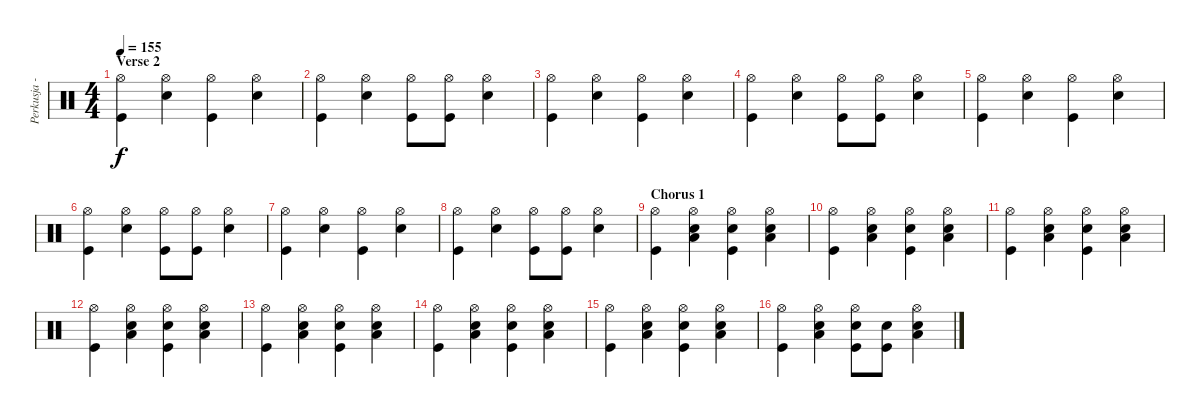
\track ("Perkusja - Mielony" "Perkusja -") {instrument percussion}
\staff {score}
\articulation defaults
\ts (4 4)
\section ("" "Verse 2")
\tempo 155
\clef neutral
\ks c
("Hi-Hat (open)" "Kick (hit)").4{dy f} ("Snare (hit) 2" "Hi-Hat (open)").4 ("Hi-Hat (open)" "Kick (hit)").4 ("Snare (hit) 2" "Hi-Hat (open)").4 |
("Hi-Hat (open)" "Kick (hit)").4 ("Snare (hit) 2" "Hi-Hat (open)").4 ("Hi-Hat (open)" "Kick (hit)").8 ("Hi-Hat (open)" "Kick (hit)").8 ("Snare (hit) 2" "Hi-Hat (open)").4 |
("Hi-Hat (open)" "Kick (hit)").4 ("Snare (hit) 2" "Hi-Hat (open)").4 ("Hi-Hat (open)" "Kick (hit)").4 ("Snare (hit) 2" "Hi-Hat (open)").4 |
("Hi-Hat (open)" "Kick (hit)").4 ("Snare (hit) 2" "Hi-Hat (open)").4 ("Hi-Hat (open)" "Kick (hit)").8 ("Hi-Hat (open)" "Kick (hit)").8 ("Snare (hit) 2" "Hi-Hat (open)").4 |
("Hi-Hat (open)" "Kick (hit)").4 ("Snare (hit) 2" "Hi-Hat (open)").4 ("Hi-Hat (open)" "Kick (hit)").4 ("Snare (hit) 2" "Hi-Hat (open)").4 |
("Hi-Hat (open)" "Kick (hit)").4 ("Snare (hit) 2" "Hi-Hat (open)").4 ("Hi-Hat (open)" "Kick (hit)").8 ("Hi-Hat (open)" "Kick (hit)").8 ("Snare (hit) 2" "Hi-Hat (open)").4 |
("Hi-Hat (open)" "Kick (hit)").4 ("Snare (hit) 2" "Hi-Hat (open)").4 ("Hi-Hat (open)" "Kick (hit)").4 ("Snare (hit) 2" "Hi-Hat (open)").4 |
("Hi-Hat (open)" "Kick (hit)").4 ("Snare (hit) 2" "Hi-Hat (open)").4 ("Hi-Hat (open)" "Kick (hit)").8 ("Hi-Hat (open)" "Kick (hit)").8 ("Snare (hit) 2" "Hi-Hat (open)").4 |
\section ("" "Chorus 1")
("Hi-Hat (open)" "Kick (hit)").4 ("Snare (hit) 2" "Hi-Hat (open)" "Low Tom (hit)").4 ("Snare (hit) 2" "Hi-Hat (open)" "Kick (hit)").4 ("Snare (hit) 2" "Hi-Hat (open)" "Low Tom (hit)").4 |
("Hi-Hat (open)" "Kick (hit)").4 ("Snare (hit) 2" "Hi-Hat (open)" "Low Tom (hit)").4 ("Snare (hit) 2" "Hi-Hat (open)" "Kick (hit)").4 ("Snare (hit) 2" "Hi-Hat (open)" "Low Tom (hit)").4 |
("Hi-Hat (open)" "Kick (hit)").4 ("Snare (hit) 2" "Hi-Hat (open)" "Low Tom (hit)").4 ("Snare (hit) 2" "Hi-Hat (open)" "Kick (hit)").4 ("Snare (hit) 2" "Hi-Hat (open)" "Low Tom (hit)").4 |
("Hi-Hat (open)" "Kick (hit)").4 ("Snare (hit) 2" "Hi-Hat (open)" "Low Tom (hit)").4 ("Snare (hit) 2" "Hi-Hat (open)" "Kick (hit)").4 ("Snare (hit) 2" "Hi-Hat (open)" "Low Tom (hit)").4 |
("Hi-Hat (open)" "Kick (hit)").4 ("Snare (hit) 2" "Hi-Hat (open)" "Low Tom (hit)").4 ("Snare (hit) 2" "Hi-Hat (open)" "Kick (hit)").4 ("Snare (hit) 2" "Hi-Hat (open)" "Low Tom (hit)").4 |
("Hi-Hat (open)" "Kick (hit)").4 ("Snare (hit) 2" "Hi-Hat (open)" "Low Tom (hit)").4 ("Snare (hit) 2" "Hi-Hat (open)" "Kick (hit)").4 ("Snare (hit) 2" "Hi-Hat (open)" "Low Tom (hit)").4 |
("Hi-Hat (open)" "Kick (hit)").4 ("Snare (hit) 2" "Hi-Hat (open)" "Low Tom (hit)").4 ("Snare (hit) 2" "Hi-Hat (open)" "Kick (hit)").4 ("Snare (hit) 2" "Hi-Hat (open)" "Low Tom (hit)").4 |
("Hi-Hat (open)" "Kick (hit)").4 ("Snare (hit) 2" "Hi-Hat (open)" "Low Tom (hit)").4 ("Snare (hit) 2" "Hi-Hat (open)" "Kick (hit)").8 ("Snare (hit) 2" "Kick (hit)").8 ("Snare (hit) 2" "Hi-Hat (open)" "Low Tom (hit)").4
